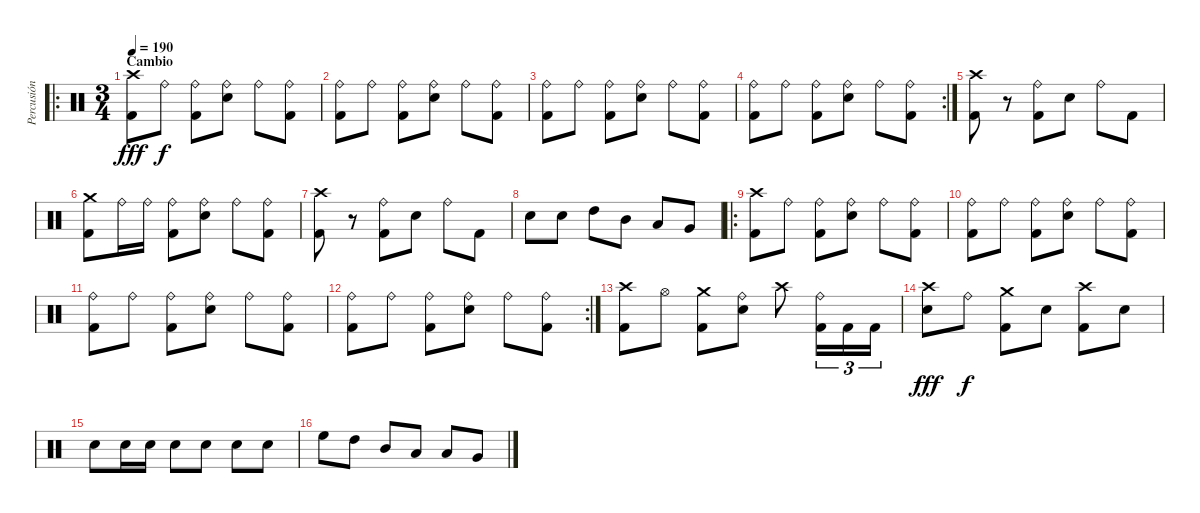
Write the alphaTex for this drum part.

\track ("Percusión" "Percusión") {instrument percussion}
\staff {score}
\articulation defaults
\ro
\ts (3 4)
\section ("" "Cambio")
\tempo 190
\clef neutral
\ks c
("Crash high (hit)" "Kick (hit) 2").8{dy fff} "Ride (bell)".8{dy f} ("Ride (bell)" "Kick (hit) 2").8 ("Ride (bell)" "Snare (hit) 2").8 "Ride (bell)".8 ("Ride (bell)" "Kick (hit) 2").8 |
("Ride (bell)" "Kick (hit) 2").8 "Ride (bell)".8 ("Ride (bell)" "Kick (hit) 2").8 ("Ride (bell)" "Snare (hit) 2").8 "Ride (bell)".8 ("Ride (bell)" "Kick (hit) 2").8 |
("Ride (bell)" "Kick (hit) 2").8 "Ride (bell)".8 ("Ride (bell)" "Kick (hit) 2").8 ("Ride (bell)" "Snare (hit) 2").8 "Ride (bell)".8 ("Ride (bell)" "Kick (hit) 2").8 |
\rc 2
("Ride (bell)" "Kick (hit) 2").8 "Ride (bell)".8 ("Ride (bell)" "Kick (hit) 2").8 ("Ride (bell)" "Snare (hit) 2").8 "Ride (bell)".8 ("Ride (bell)" "Kick (hit) 2").8 |
("Crash high (hit)" "Kick (hit) 2").8 r.8 ("Ride (bell)" "Kick (hit) 2").8 "Snare (hit) 2".8 "Ride (bell)".8 "Kick (hit) 2".8 |
("Crash medium (hit)" "Kick (hit) 2").8 "Ride (bell)".16 "Ride (bell)".16 ("Ride (bell)" "Kick (hit) 2").8 ("Ride (bell)" "Snare (hit) 2").8 "Ride (bell)".8 ("Ride (bell)" "Kick (hit) 2").8 |
("Crash high (hit)" "Kick (hit) 2").8 r.8 ("Ride (bell)" "Kick (hit) 2").8 "Snare (hit) 2".8 "Ride (bell)".8 "Kick (hit) 2".8 |
"Snare (hit) 2".8 "Snare (hit) 2".8 "High Tom (hit)".8 "Mid Tom (hit)".8 "Low Tom (hit)".8 "Very Low Tom (hit)".8 |
\ro
("Crash high (hit)" "Kick (hit) 2").8 "Ride (bell)".8 ("Ride (bell)" "Kick (hit) 2").8 ("Ride (bell)" "Snare (hit) 2").8 "Ride (bell)".8 ("Ride (bell)" "Kick (hit) 2").8 |
("Ride (bell)" "Kick (hit) 2").8 "Ride (bell)".8 ("Ride (bell)" "Kick (hit) 2").8 ("Ride (bell)" "Snare (hit) 2").8 "Ride (bell)".8 ("Ride (bell)" "Kick (hit) 2").8 |
("Ride (bell)" "Kick (hit) 2").8 "Ride (bell)".8 ("Ride (bell)" "Kick (hit) 2").8 ("Ride (bell)" "Snare (hit) 2").8 "Ride (bell)".8 ("Ride (bell)" "Kick (hit) 2").8 |
\rc 2
("Ride (bell)" "Kick (hit) 2").8 "Ride (bell)".8 ("Ride (bell)" "Kick (hit) 2").8 ("Ride (bell)" "Snare (hit) 2").8 "Ride (bell)".8 ("Ride (bell)" "Kick (hit) 2").8 |
("Crash high (hit)" "Kick (hit) 2").8 "Hi-Hat (open)".8 ("Crash medium (hit)" "Kick (hit) 2").8 ("Ride (bell)" "Snare (hit) 2").8 "Crash high (hit)".8 ("Ride (bell)" "Kick (hit) 2").16{tu (3 2)} "Kick (hit) 2".16{tu (3 2)} "Kick (hit) 2".16{tu (3 2)} |
("Crash high (hit)" "Snare (hit) 2").8{dy fff} "Ride (bell)".8{dy f} ("Crash medium (hit)" "Kick (hit) 2").8 "Snare (hit) 2".8 ("Crash high (hit)" "Kick (hit) 2").8 "Snare (hit) 2".8 |
"Snare (hit) 2".8 "Snare (hit) 2".16 "Snare (hit) 2".16 "Snare (hit) 2".8 "Snare (hit) 2".8 "Snare (hit) 2".8 "Snare (hit) 2".8 |
"High Floor Tom (hit)".8 "High Tom (hit)".8 "Mid Tom (hit)".8 "Low Tom (hit)".8 "Low Tom (hit)".8 "Very Low Tom (hit)".8
